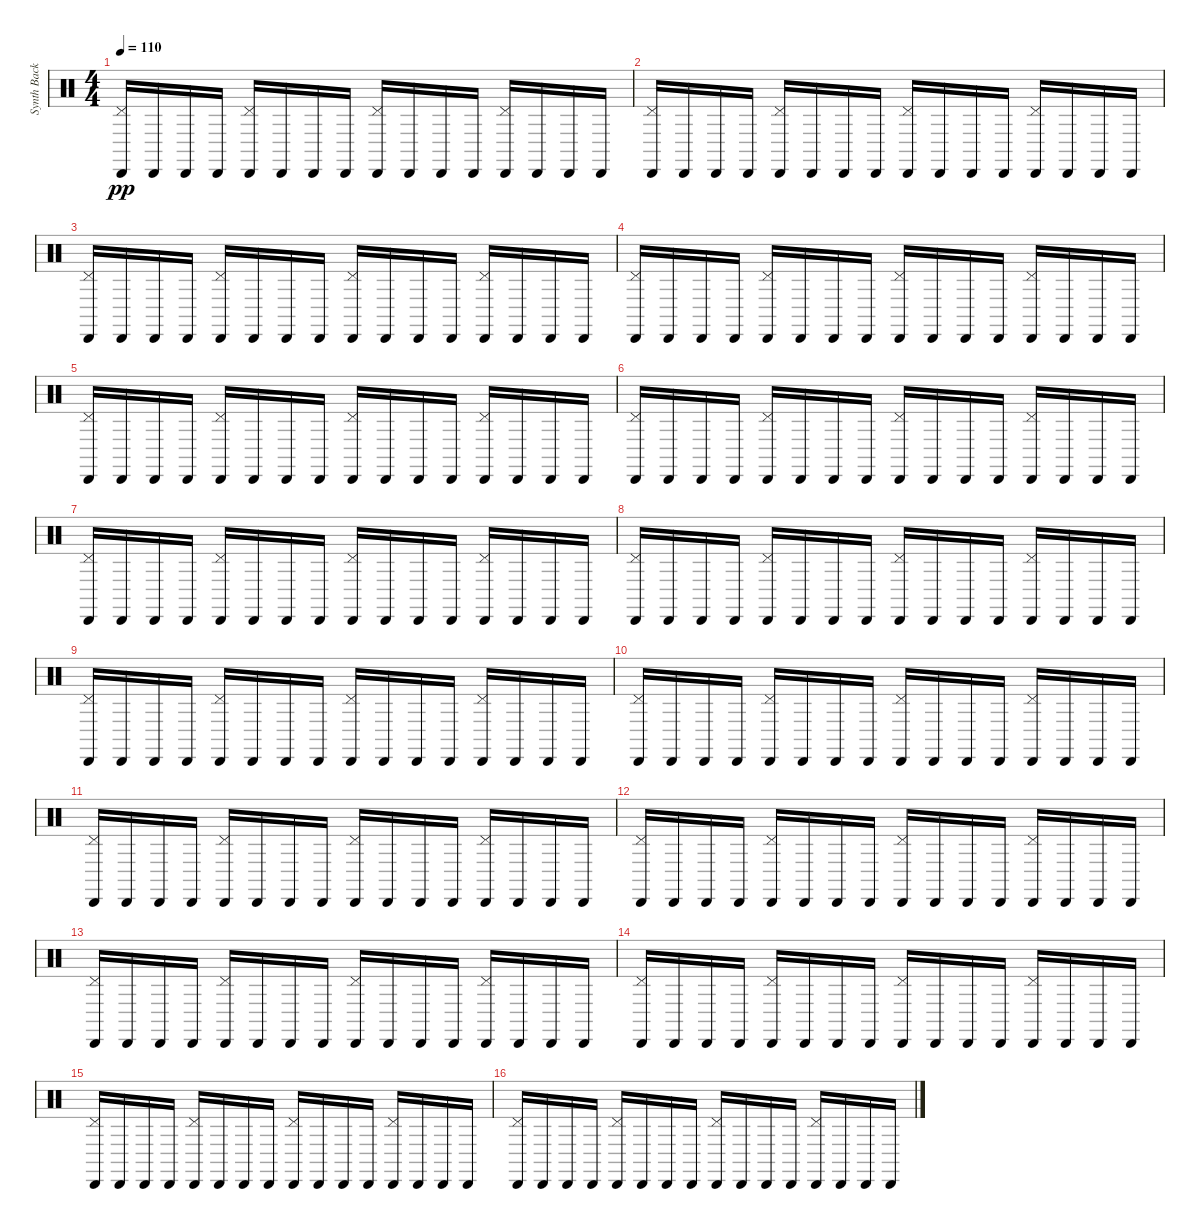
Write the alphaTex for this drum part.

\track ("Synth Background Rhythm" "Synth Back") {instrument percussion}
\staff {score}
\articulation defaults
\ts (4 4)
\tempo 110
\clef neutral
\ks c
("Pedal Hi-Hat (hit)" "Cabasa (hit)").16{dy pp} "Cabasa (hit)".16 "Cabasa (hit)".16 "Cabasa (hit)".16 ("Pedal Hi-Hat (hit)" "Cabasa (hit)").16 "Cabasa (hit)".16 "Cabasa (hit)".16 "Cabasa (hit)".16 ("Pedal Hi-Hat (hit)" "Cabasa (hit)").16 "Cabasa (hit)".16 "Cabasa (hit)".16 "Cabasa (hit)".16 ("Pedal Hi-Hat (hit)" "Cabasa (hit)").16 "Cabasa (hit)".16 "Cabasa (hit)".16 "Cabasa (hit)".16 |
("Pedal Hi-Hat (hit)" "Cabasa (hit)").16 "Cabasa (hit)".16 "Cabasa (hit)".16 "Cabasa (hit)".16 ("Pedal Hi-Hat (hit)" "Cabasa (hit)").16 "Cabasa (hit)".16 "Cabasa (hit)".16 "Cabasa (hit)".16 ("Pedal Hi-Hat (hit)" "Cabasa (hit)").16 "Cabasa (hit)".16 "Cabasa (hit)".16 "Cabasa (hit)".16 ("Pedal Hi-Hat (hit)" "Cabasa (hit)").16 "Cabasa (hit)".16 "Cabasa (hit)".16 "Cabasa (hit)".16 |
("Pedal Hi-Hat (hit)" "Cabasa (hit)").16 "Cabasa (hit)".16 "Cabasa (hit)".16 "Cabasa (hit)".16 ("Pedal Hi-Hat (hit)" "Cabasa (hit)").16 "Cabasa (hit)".16 "Cabasa (hit)".16 "Cabasa (hit)".16 ("Pedal Hi-Hat (hit)" "Cabasa (hit)").16 "Cabasa (hit)".16 "Cabasa (hit)".16 "Cabasa (hit)".16 ("Pedal Hi-Hat (hit)" "Cabasa (hit)").16 "Cabasa (hit)".16 "Cabasa (hit)".16 "Cabasa (hit)".16 |
("Pedal Hi-Hat (hit)" "Cabasa (hit)").16 "Cabasa (hit)".16 "Cabasa (hit)".16 "Cabasa (hit)".16 ("Pedal Hi-Hat (hit)" "Cabasa (hit)").16 "Cabasa (hit)".16 "Cabasa (hit)".16 "Cabasa (hit)".16 ("Pedal Hi-Hat (hit)" "Cabasa (hit)").16 "Cabasa (hit)".16 "Cabasa (hit)".16 "Cabasa (hit)".16 ("Pedal Hi-Hat (hit)" "Cabasa (hit)").16 "Cabasa (hit)".16 "Cabasa (hit)".16 "Cabasa (hit)".16 |
("Pedal Hi-Hat (hit)" "Cabasa (hit)").16 "Cabasa (hit)".16 "Cabasa (hit)".16 "Cabasa (hit)".16 ("Pedal Hi-Hat (hit)" "Cabasa (hit)").16 "Cabasa (hit)".16 "Cabasa (hit)".16 "Cabasa (hit)".16 ("Pedal Hi-Hat (hit)" "Cabasa (hit)").16 "Cabasa (hit)".16 "Cabasa (hit)".16 "Cabasa (hit)".16 ("Pedal Hi-Hat (hit)" "Cabasa (hit)").16 "Cabasa (hit)".16 "Cabasa (hit)".16 "Cabasa (hit)".16 |
("Pedal Hi-Hat (hit)" "Cabasa (hit)").16 "Cabasa (hit)".16 "Cabasa (hit)".16 "Cabasa (hit)".16 ("Pedal Hi-Hat (hit)" "Cabasa (hit)").16 "Cabasa (hit)".16 "Cabasa (hit)".16 "Cabasa (hit)".16 ("Pedal Hi-Hat (hit)" "Cabasa (hit)").16 "Cabasa (hit)".16 "Cabasa (hit)".16 "Cabasa (hit)".16 ("Pedal Hi-Hat (hit)" "Cabasa (hit)").16 "Cabasa (hit)".16 "Cabasa (hit)".16 "Cabasa (hit)".16 |
("Pedal Hi-Hat (hit)" "Cabasa (hit)").16 "Cabasa (hit)".16 "Cabasa (hit)".16 "Cabasa (hit)".16 ("Pedal Hi-Hat (hit)" "Cabasa (hit)").16 "Cabasa (hit)".16 "Cabasa (hit)".16 "Cabasa (hit)".16 ("Pedal Hi-Hat (hit)" "Cabasa (hit)").16 "Cabasa (hit)".16 "Cabasa (hit)".16 "Cabasa (hit)".16 ("Pedal Hi-Hat (hit)" "Cabasa (hit)").16 "Cabasa (hit)".16 "Cabasa (hit)".16 "Cabasa (hit)".16 |
("Pedal Hi-Hat (hit)" "Cabasa (hit)").16 "Cabasa (hit)".16 "Cabasa (hit)".16 "Cabasa (hit)".16 ("Pedal Hi-Hat (hit)" "Cabasa (hit)").16 "Cabasa (hit)".16 "Cabasa (hit)".16 "Cabasa (hit)".16 ("Pedal Hi-Hat (hit)" "Cabasa (hit)").16 "Cabasa (hit)".16 "Cabasa (hit)".16 "Cabasa (hit)".16 ("Pedal Hi-Hat (hit)" "Cabasa (hit)").16 "Cabasa (hit)".16 "Cabasa (hit)".16 "Cabasa (hit)".16 |
("Pedal Hi-Hat (hit)" "Cabasa (hit)").16 "Cabasa (hit)".16 "Cabasa (hit)".16 "Cabasa (hit)".16 ("Pedal Hi-Hat (hit)" "Cabasa (hit)").16 "Cabasa (hit)".16 "Cabasa (hit)".16 "Cabasa (hit)".16 ("Pedal Hi-Hat (hit)" "Cabasa (hit)").16 "Cabasa (hit)".16 "Cabasa (hit)".16 "Cabasa (hit)".16 ("Pedal Hi-Hat (hit)" "Cabasa (hit)").16 "Cabasa (hit)".16 "Cabasa (hit)".16 "Cabasa (hit)".16 |
("Pedal Hi-Hat (hit)" "Cabasa (hit)").16 "Cabasa (hit)".16 "Cabasa (hit)".16 "Cabasa (hit)".16 ("Pedal Hi-Hat (hit)" "Cabasa (hit)").16 "Cabasa (hit)".16 "Cabasa (hit)".16 "Cabasa (hit)".16 ("Pedal Hi-Hat (hit)" "Cabasa (hit)").16 "Cabasa (hit)".16 "Cabasa (hit)".16 "Cabasa (hit)".16 ("Pedal Hi-Hat (hit)" "Cabasa (hit)").16 "Cabasa (hit)".16 "Cabasa (hit)".16 "Cabasa (hit)".16 |
("Pedal Hi-Hat (hit)" "Cabasa (hit)").16 "Cabasa (hit)".16 "Cabasa (hit)".16 "Cabasa (hit)".16 ("Pedal Hi-Hat (hit)" "Cabasa (hit)").16 "Cabasa (hit)".16 "Cabasa (hit)".16 "Cabasa (hit)".16 ("Pedal Hi-Hat (hit)" "Cabasa (hit)").16 "Cabasa (hit)".16 "Cabasa (hit)".16 "Cabasa (hit)".16 ("Pedal Hi-Hat (hit)" "Cabasa (hit)").16 "Cabasa (hit)".16 "Cabasa (hit)".16 "Cabasa (hit)".16 |
("Pedal Hi-Hat (hit)" "Cabasa (hit)").16 "Cabasa (hit)".16 "Cabasa (hit)".16 "Cabasa (hit)".16 ("Pedal Hi-Hat (hit)" "Cabasa (hit)").16 "Cabasa (hit)".16 "Cabasa (hit)".16 "Cabasa (hit)".16 ("Pedal Hi-Hat (hit)" "Cabasa (hit)").16 "Cabasa (hit)".16 "Cabasa (hit)".16 "Cabasa (hit)".16 ("Pedal Hi-Hat (hit)" "Cabasa (hit)").16 "Cabasa (hit)".16 "Cabasa (hit)".16 "Cabasa (hit)".16 |
("Pedal Hi-Hat (hit)" "Cabasa (hit)").16 "Cabasa (hit)".16 "Cabasa (hit)".16 "Cabasa (hit)".16 ("Pedal Hi-Hat (hit)" "Cabasa (hit)").16 "Cabasa (hit)".16 "Cabasa (hit)".16 "Cabasa (hit)".16 ("Pedal Hi-Hat (hit)" "Cabasa (hit)").16 "Cabasa (hit)".16 "Cabasa (hit)".16 "Cabasa (hit)".16 ("Pedal Hi-Hat (hit)" "Cabasa (hit)").16 "Cabasa (hit)".16 "Cabasa (hit)".16 "Cabasa (hit)".16 |
("Pedal Hi-Hat (hit)" "Cabasa (hit)").16 "Cabasa (hit)".16 "Cabasa (hit)".16 "Cabasa (hit)".16 ("Pedal Hi-Hat (hit)" "Cabasa (hit)").16 "Cabasa (hit)".16 "Cabasa (hit)".16 "Cabasa (hit)".16 ("Pedal Hi-Hat (hit)" "Cabasa (hit)").16 "Cabasa (hit)".16 "Cabasa (hit)".16 "Cabasa (hit)".16 ("Pedal Hi-Hat (hit)" "Cabasa (hit)").16 "Cabasa (hit)".16 "Cabasa (hit)".16 "Cabasa (hit)".16 |
("Pedal Hi-Hat (hit)" "Cabasa (hit)").16 "Cabasa (hit)".16 "Cabasa (hit)".16 "Cabasa (hit)".16 ("Pedal Hi-Hat (hit)" "Cabasa (hit)").16 "Cabasa (hit)".16 "Cabasa (hit)".16 "Cabasa (hit)".16 ("Pedal Hi-Hat (hit)" "Cabasa (hit)").16 "Cabasa (hit)".16 "Cabasa (hit)".16 "Cabasa (hit)".16 ("Pedal Hi-Hat (hit)" "Cabasa (hit)").16 "Cabasa (hit)".16 "Cabasa (hit)".16 "Cabasa (hit)".16 |
("Pedal Hi-Hat (hit)" "Cabasa (hit)").16 "Cabasa (hit)".16 "Cabasa (hit)".16 "Cabasa (hit)".16 ("Pedal Hi-Hat (hit)" "Cabasa (hit)").16 "Cabasa (hit)".16 "Cabasa (hit)".16 "Cabasa (hit)".16 ("Pedal Hi-Hat (hit)" "Cabasa (hit)").16 "Cabasa (hit)".16 "Cabasa (hit)".16 "Cabasa (hit)".16 ("Pedal Hi-Hat (hit)" "Cabasa (hit)").16 "Cabasa (hit)".16 "Cabasa (hit)".16 "Cabasa (hit)".16
